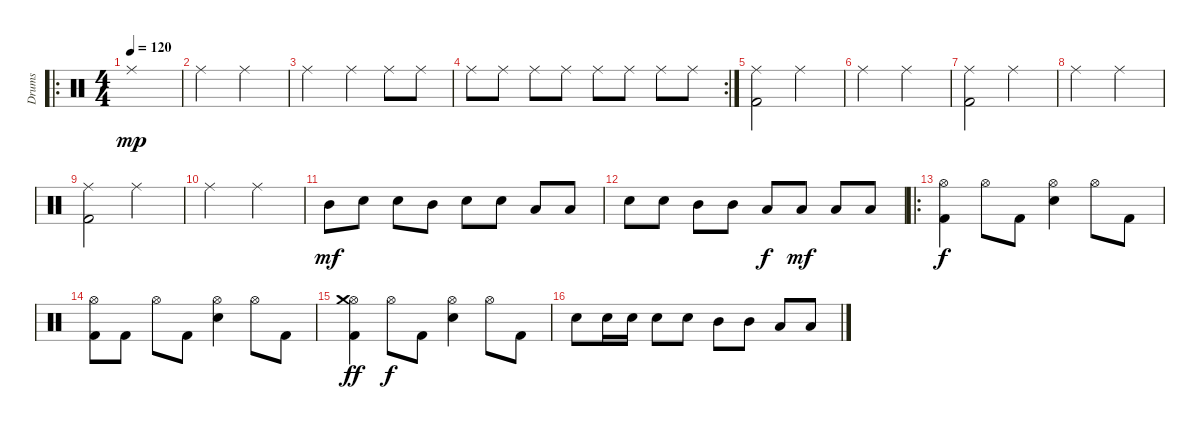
\track ("Drums" "Drums") {instrument percussion}
\staff {score}
\articulation defaults
\ro
\ts (4 4)
\tempo 120
\clef neutral
\ks c "Ride (middle)".1{dy mp}
|
"Ride (middle)".2 "Ride (middle)".2 |
"Ride (middle)".2 "Ride (middle)".4 "Ride (middle)".8 "Ride (middle)".8 |
\rc 2 "Ride (middle)".8 "Ride (middle)".8 "Ride (middle)".8 "Ride (middle)".8 "Ride (middle)".8 "Ride (middle)".8 "Ride (middle)".8 "Ride (middle)".8
|
("Ride (middle)" "Kick (hit) 2").2 "Ride (middle)".2 |
"Ride (middle)".2 "Ride (middle)".2 |
("Ride (middle)" "Kick (hit) 2").2 "Ride (middle)".2 |
"Ride (middle)".2 "Ride (middle)".2 |
("Ride (middle)" "Kick (hit) 2").2 "Ride (middle)".2 |
"Ride (middle)".2 "Ride (middle)".2 |
"Mid Tom (hit)".8{dy mf} "Snare (hit) 2".8 "Snare (hit) 2".8 "Mid Tom (hit)".8 "Snare (hit) 2".8 "Snare (hit) 2".8 "Low Tom (hit)".8 "Low Tom (hit)".8 |
"Snare (hit) 2".8 "Snare (hit) 2".8 "Mid Tom (hit)".8 "Mid Tom (hit)".8 "Low Tom (hit)".8{dy f} "Low Tom (hit)".8{dy mf} "Low Floor Tom (hit)".8 "Low Floor Tom (hit)".8 |
\ro
("Hi-Hat (open)" "Kick (hit) 2").4{dy f} "Hi-Hat (open)".8 "Kick (hit) 2".8 ("Hi-Hat (open)" "Snare (hit) 2").4 "Hi-Hat (open)".8 "Kick (hit) 2".8 |
("Hi-Hat (open)" "Kick (hit) 2").8 "Kick (hit) 2".8 "Hi-Hat (open)".8 "Kick (hit) 2".8 ("Hi-Hat (open)" "Snare (hit) 2").4 "Hi-Hat (open)".8 "Kick (hit) 2".8 |
("Hi-Hat (open)" "Crash medium (hit)" "Kick (hit) 2").4{dy ff} "Hi-Hat (open)".8{dy f} "Kick (hit) 2".8 ("Hi-Hat (open)" "Snare (hit) 2").4 "Hi-Hat (open)".8 "Kick (hit) 2".8 |
"Snare (hit) 2".8 "Snare (hit) 2".16 "Snare (hit) 2".16 "Snare (hit) 2".8 "Snare (hit) 2".8 "Mid Tom (hit)".8 "Mid Tom (hit)".8 "Low Tom (hit)".8 "Low Tom (hit)".8
